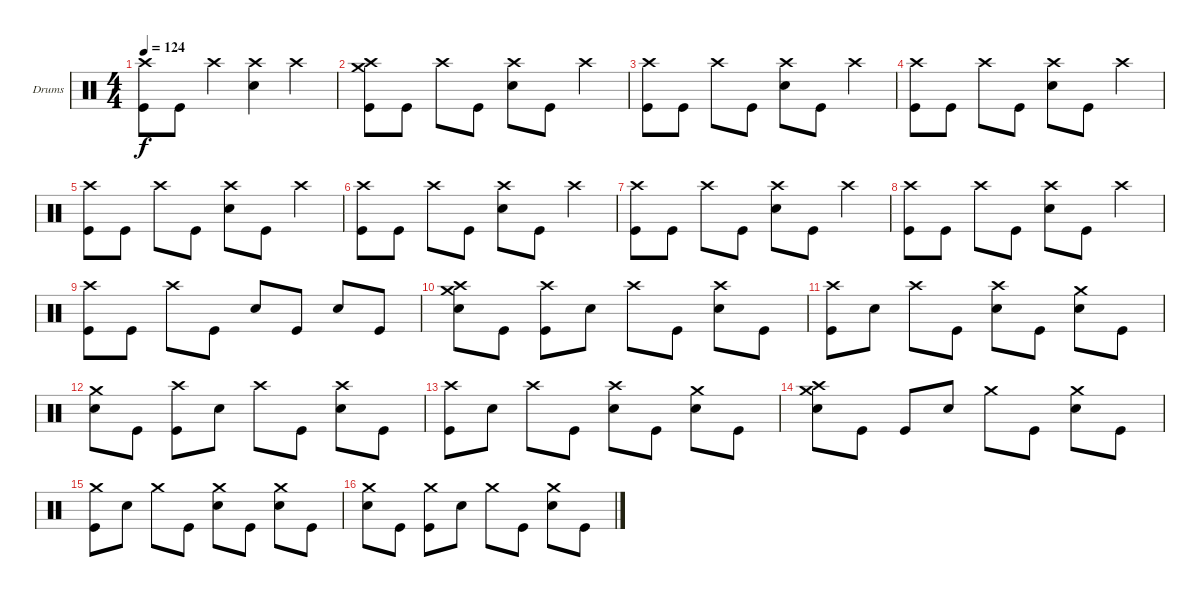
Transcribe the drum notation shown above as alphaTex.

\defaultSystemsLayout 4
\bracketExtendMode groupsimilarinstruments
\firstSystemTrackNameOrientation horizontal
\otherSystemsTrackNameOrientation horizontal
\track ("Drumkit" "Drums") {instrument percussion}
\staff {score}
\articulation defaults
\ts (4 4)
\tempo 124
\clef neutral
\ks c
("Crash high (hit)" "Kick (hit)").8{dy f} "Kick (hit)".8 "Crash high (hit)".4 ("Crash high (hit)" "Snare (hit) 2").4 "Crash high (hit)".4 |
("Crash high (hit)" "Crash medium (hit)" "Kick (hit)").8 "Kick (hit)".8 "Crash high (hit)".8 "Kick (hit)".8 ("Crash high (hit)" "Snare (hit) 2").8 "Kick (hit)".8 "Crash high (hit)".4 |
("Crash high (hit)" "Kick (hit)").8 "Kick (hit)".8 "Crash high (hit)".8 "Kick (hit)".8 ("Crash high (hit)" "Snare (hit) 2").8 "Kick (hit)".8 "Crash high (hit)".4 |
("Crash high (hit)" "Kick (hit)").8 "Kick (hit)".8 "Crash high (hit)".8 "Kick (hit)".8 ("Crash high (hit)" "Snare (hit) 2").8 "Kick (hit)".8 "Crash high (hit)".4 |
("Crash high (hit)" "Kick (hit)").8 "Kick (hit)".8 "Crash high (hit)".8 "Kick (hit)".8 ("Crash high (hit)" "Snare (hit) 2").8 "Kick (hit)".8 "Crash high (hit)".4 |
("Crash high (hit)" "Kick (hit)").8 "Kick (hit)".8 "Crash high (hit)".8 "Kick (hit)".8 ("Crash high (hit)" "Snare (hit) 2").8 "Kick (hit)".8 "Crash high (hit)".4 |
("Crash high (hit)" "Kick (hit)").8 "Kick (hit)".8 "Crash high (hit)".8 "Kick (hit)".8 ("Crash high (hit)" "Snare (hit) 2").8 "Kick (hit)".8 "Crash high (hit)".4 |
("Crash high (hit)" "Kick (hit)").8 "Kick (hit)".8 "Crash high (hit)".8 "Kick (hit)".8 ("Crash high (hit)" "Snare (hit) 2").8 "Kick (hit)".8 "Crash high (hit)".4 |
("Crash high (hit)" "Kick (hit)").8 "Kick (hit)".8 "Crash high (hit)".8 "Kick (hit)".8 "Snare (hit) 2".8 "Kick (hit)".8 "Snare (hit) 2".8 "Kick (hit)".8 |
("Crash high (hit)" "Crash medium (hit)" "Snare (hit) 2").8 "Kick (hit)".8 ("Crash high (hit)" "Kick (hit)").8 "Snare (hit) 2".8 "Crash high (hit)".8 "Kick (hit)".8 ("Crash high (hit)" "Snare (hit) 2").8 "Kick (hit)".8 |
("Crash high (hit)" "Kick (hit)").8 "Snare (hit) 2".8 "Crash high (hit)".8 "Kick (hit)".8 ("Crash high (hit)" "Snare (hit) 2").8 "Kick (hit)".8 ("Crash medium (hit)" "Snare (hit) 2").8 "Kick (hit)".8 |
("Crash medium (hit)" "Snare (hit) 2").8 "Kick (hit)".8 ("Crash high (hit)" "Kick (hit)").8 "Snare (hit) 2".8 "Crash high (hit)".8 "Kick (hit)".8 ("Crash high (hit)" "Snare (hit) 2").8 "Kick (hit)".8 |
("Crash high (hit)" "Kick (hit)").8 "Snare (hit) 2".8 "Crash high (hit)".8 "Kick (hit)".8 ("Crash high (hit)" "Snare (hit) 2").8 "Kick (hit)".8 ("Crash medium (hit)" "Snare (hit) 2").8 "Kick (hit)".8 |
("Crash high (hit)" "Crash medium (hit)" "Snare (hit) 2").8 "Kick (hit)".8 "Kick (hit)".8 "Snare (hit) 2".8 "Crash medium (hit)".8 "Kick (hit)".8 ("Crash medium (hit)" "Snare (hit) 2").8 "Kick (hit)".8 |
("Crash medium (hit)" "Kick (hit)").8 "Snare (hit) 2".8 "Crash medium (hit)".8 "Kick (hit)".8 ("Crash medium (hit)" "Snare (hit) 2").8 "Kick (hit)".8 ("Crash medium (hit)" "Snare (hit) 2").8 "Kick (hit)".8 |
("Crash medium (hit)" "Snare (hit) 2").8 "Kick (hit)".8 ("Crash medium (hit)" "Kick (hit)").8 "Snare (hit) 2".8 "Crash medium (hit)".8 "Kick (hit)".8 ("Crash medium (hit)" "Snare (hit) 2").8 "Kick (hit)".8
